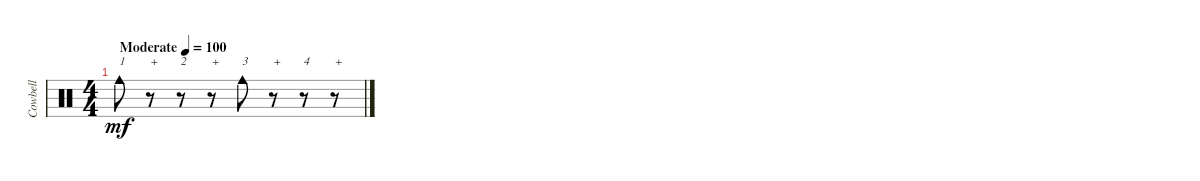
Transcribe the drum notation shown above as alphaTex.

\track ("Cowbell" "Cowbell") {instrument percussion}
\staff {score}
\articulation defaults
\ts (4 4)
\tempo (100 "Moderate")
\clef neutral
\ks c "Cowbell medium (hit)".8{txt "1" dy mf}
r.8{txt "+"} r.8{txt "2"} r.8{txt "+"} "Cowbell medium (hit)".8{txt "3"} r.8{txt "+"} r.8{txt "4"} r.8{txt "+"}
